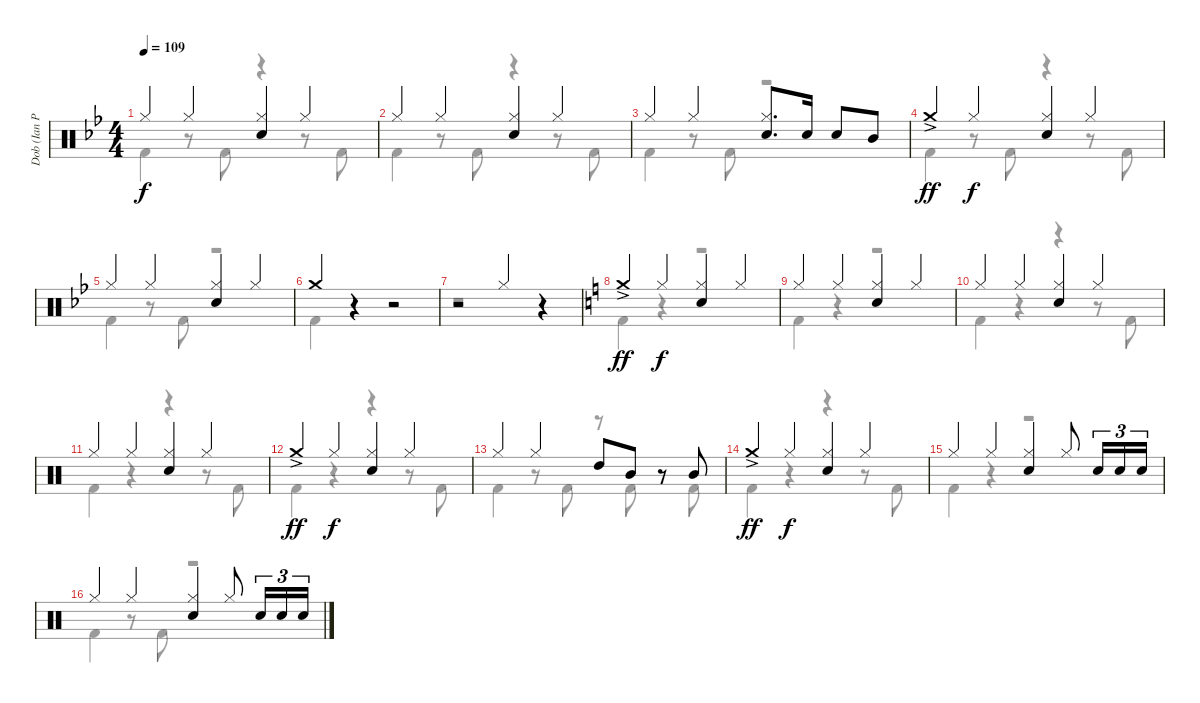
\track ("Dob (Ian Paice)" "Dob (Ian P") {instrument percussion}
\staff {score}
\articulation defaults
\voice
\ts (4 4)
\tempo 109
\clef neutral
\ks bb "Hi-Hat (closed)".4{dy f} "Hi-Hat (closed)".4
("Hi-Hat (closed)" "Electric Snare (hit)").4 "Hi-Hat (closed)".4 |
"Hi-Hat (closed)".4 "Hi-Hat (closed)".4 ("Hi-Hat (closed)" "Electric Snare (hit)").4 "Hi-Hat (closed)".4 |
"Hi-Hat (closed)".4 "Hi-Hat (closed)".4 ("Hi-Hat (closed)" "Electric Snare (hit)").8{d} "Electric Snare (hit)".16 "Electric Snare (hit)".8 "Mid Tom (hit)".8 |
"Crash medium (hit)"{ac}.4{dy ff} "Hi-Hat (closed)".4{dy f} ("Hi-Hat (closed)" "Electric Snare (hit)").4 "Hi-Hat (closed)".4 |
"Hi-Hat (closed)".4 "Hi-Hat (closed)".4 ("Hi-Hat (closed)" "Electric Snare (hit)").4 "Hi-Hat (closed)".4 |
"Crash medium (hit)".4 r.4 r.2 |
r.2 "Hi-Hat (closed)".4 r.4 |
\ks c "Crash medium (hit)"{ac}.4{dy ff} "Hi-Hat (closed)".4{dy f}
("Hi-Hat (closed)" "Electric Snare (hit)").4 "Hi-Hat (closed)".4 |
"Hi-Hat (closed)".4 "Hi-Hat (closed)".4 ("Hi-Hat (closed)" "Electric Snare (hit)").4 "Hi-Hat (closed)".4 |
"Hi-Hat (closed)".4 "Hi-Hat (closed)".4 ("Hi-Hat (closed)" "Electric Snare (hit)").4 "Hi-Hat (closed)".4 |
"Hi-Hat (closed)".4 "Hi-Hat (closed)".4 ("Hi-Hat (closed)" "Electric Snare (hit)").4 "Hi-Hat (closed)".4 |
"Crash medium (hit)"{ac}.4{dy ff} "Hi-Hat (closed)".4{dy f} ("Hi-Hat (closed)" "Electric Snare (hit)").4 "Hi-Hat (closed)".4 |
"Hi-Hat (closed)".4 "Hi-Hat (closed)".4 "High Tom (hit)".8 "Mid Tom (hit)".8 r.8 "Mid Tom (hit)".8 |
"Crash medium (hit)"{ac}.4{dy ff} "Hi-Hat (closed)".4{dy f} ("Hi-Hat (closed)" "Electric Snare (hit)").4 "Hi-Hat (closed)".4 |
"Hi-Hat (closed)".4 "Hi-Hat (closed)".4 ("Hi-Hat (closed)" "Electric Snare (hit)").4 "Hi-Hat (closed)".8 "Electric Snare (hit)".16{tu (3 2)} "Electric Snare (hit)".16{tu (3 2)} "Electric Snare (hit)".16{tu (3 2)} |
"Hi-Hat (closed)".4 "Hi-Hat (closed)".4 ("Hi-Hat (closed)" "Electric Snare (hit)").4 "Hi-Hat (closed)".8 "Electric Snare (hit)".16{tu (3 2)} "Electric Snare (hit)".16{tu (3 2)} "Electric Snare (hit)".16{tu (3 2)}
\voice
\clef neutral
\ottava regular
\simile none
\ks bb "Kick (hit) 2".4{dy f}
r.8 "Kick (hit) 2".8 r.4 r.8 "Kick (hit) 2".8 |
"Kick (hit) 2".4 r.8 "Kick (hit) 2".8 r.4 r.8 "Kick (hit) 2".8 |
"Kick (hit) 2".4 r.8 "Kick (hit) 2".8 r.2 |
"Kick (hit) 2".4 r.8 "Kick (hit) 2".8 r.4 r.8 "Kick (hit) 2".8 |
"Kick (hit) 2".4 r.8 "Kick (hit) 2".8 r.2 |
"Kick (hit) 2".4 r.4 r.2 |
r.1 |
\ks c "Kick (hit) 2".4
r.4 r.2 |
"Kick (hit) 2".4 r.4 r.2 |
"Kick (hit) 2".4 r.4 r.4 r.8 "Kick (hit) 2".8 |
"Kick (hit) 2".4 r.4 r.4 r.8 "Kick (hit) 2".8 |
"Kick (hit) 2".4 r.4 r.4 r.8 "Kick (hit) 2".8 |
"Kick (hit) 2".4 r.8 "Kick (hit) 2".8 r.8 "Kick (hit) 2".8 r.8 "Kick (hit) 2".8 |
"Kick (hit) 2".4 r.4 r.4 r.8 "Kick (hit) 2".8 |
"Kick (hit) 2".4 r.4 r.2 |
"Kick (hit) 2".4 r.8 "Kick (hit) 2".8 r.2
